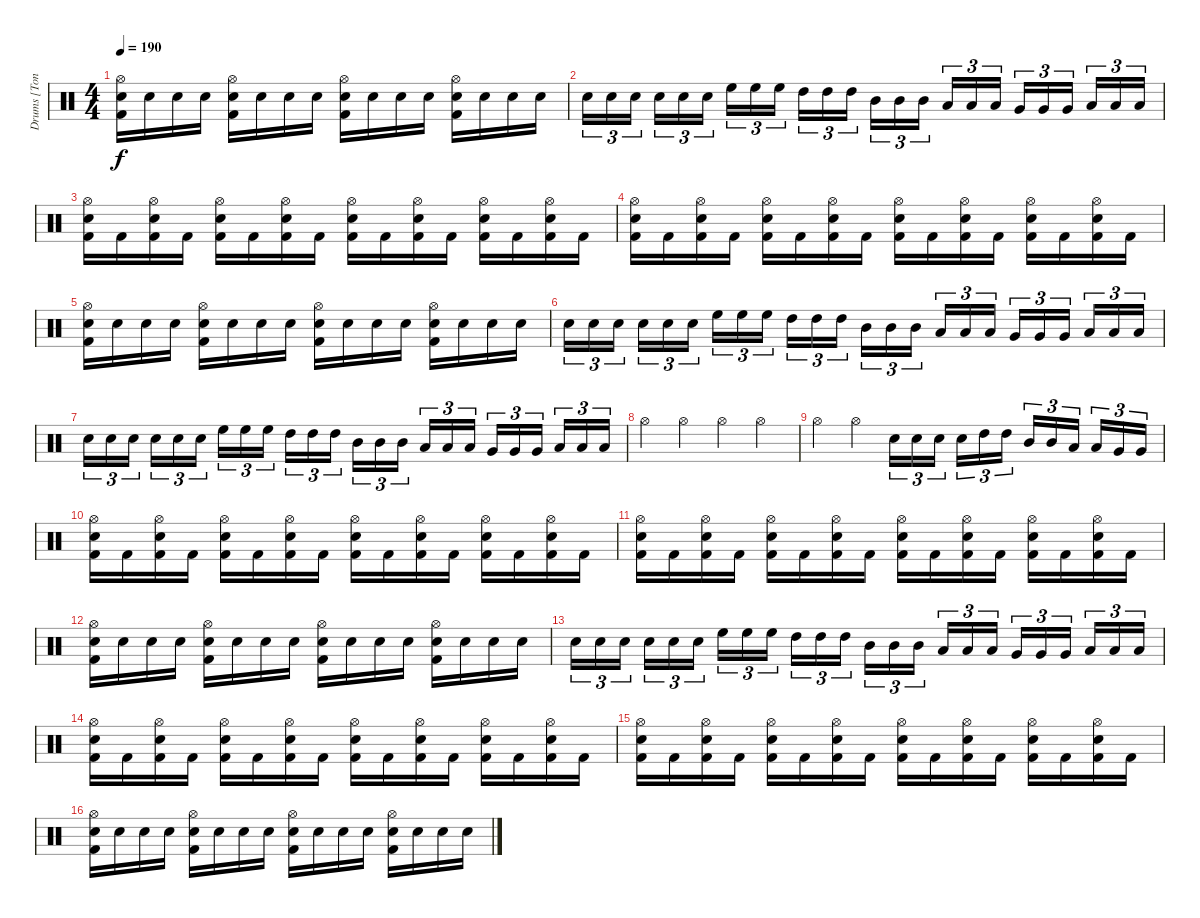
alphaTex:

\track ("Drums [Tony Laureano]" "Drums [Ton") {instrument percussion}
\staff {score}
\articulation defaults
\ts (4 4)
\tempo 190
\clef neutral
\ks c
("Hi-Hat (open)" "Electric Snare (hit)" "Kick (hit) 2").16{dy f} "Electric Snare (hit)".16 "Electric Snare (hit)".16 "Electric Snare (hit)".16 ("Hi-Hat (open)" "Electric Snare (hit)" "Kick (hit) 2").16 "Electric Snare (hit)".16 "Electric Snare (hit)".16 "Electric Snare (hit)".16 ("Hi-Hat (open)" "Electric Snare (hit)" "Kick (hit) 2").16 "Electric Snare (hit)".16 "Electric Snare (hit)".16 "Electric Snare (hit)".16 ("Hi-Hat (open)" "Electric Snare (hit)" "Kick (hit) 2").16 "Electric Snare (hit)".16 "Electric Snare (hit)".16 "Electric Snare (hit)".16 |
"Electric Snare (hit)".16{tu (3 2)} "Electric Snare (hit)".16{tu (3 2)} "Electric Snare (hit)".16{tu (3 2)} "Electric Snare (hit)".16{tu (3 2)} "Electric Snare (hit)".16{tu (3 2)} "Electric Snare (hit)".16{tu (3 2)} "High Floor Tom (hit)".16{tu (3 2)} "High Floor Tom (hit)".16{tu (3 2)} "High Floor Tom (hit)".16{tu (3 2)} "High Tom (hit)".16{tu (3 2)} "High Tom (hit)".16{tu (3 2)} "High Tom (hit)".16{tu (3 2)} "Mid Tom (hit)".16{tu (3 2)} "Mid Tom (hit)".16{tu (3 2)} "Mid Tom (hit)".16{tu (3 2)} "Low Tom (hit)".16{tu (3 2)} "Low Tom (hit)".16{tu (3 2)} "Low Tom (hit)".16{tu (3 2)} "Very Low Tom (hit)".16{tu (3 2)} "Very Low Tom (hit)".16{tu (3 2)} "Very Low Tom (hit)".16{tu (3 2)} "Low Floor Tom (hit)".16{tu (3 2)} "Low Floor Tom (hit)".16{tu (3 2)} "Low Floor Tom (hit)".16{tu (3 2)} |
("Hi-Hat (open)" "Electric Snare (hit)" "Kick (hit) 2").16 "Kick (hit) 2".16 ("Hi-Hat (open)" "Electric Snare (hit)" "Kick (hit) 2").16 "Kick (hit) 2".16 ("Hi-Hat (open)" "Electric Snare (hit)" "Kick (hit) 2").16 "Kick (hit) 2".16 ("Hi-Hat (open)" "Electric Snare (hit)" "Kick (hit) 2").16 "Kick (hit) 2".16 ("Hi-Hat (open)" "Electric Snare (hit)" "Kick (hit) 2").16 "Kick (hit) 2".16 ("Hi-Hat (open)" "Electric Snare (hit)" "Kick (hit) 2").16 "Kick (hit) 2".16 ("Hi-Hat (open)" "Electric Snare (hit)" "Kick (hit) 2").16 "Kick (hit) 2".16 ("Hi-Hat (open)" "Electric Snare (hit)" "Kick (hit) 2").16 "Kick (hit) 2".16 |
("Hi-Hat (open)" "Electric Snare (hit)" "Kick (hit) 2").16 "Kick (hit) 2".16 ("Hi-Hat (open)" "Electric Snare (hit)" "Kick (hit) 2").16 "Kick (hit) 2".16 ("Hi-Hat (open)" "Electric Snare (hit)" "Kick (hit) 2").16 "Kick (hit) 2".16 ("Hi-Hat (open)" "Electric Snare (hit)" "Kick (hit) 2").16 "Kick (hit) 2".16 ("Hi-Hat (open)" "Electric Snare (hit)" "Kick (hit) 2").16 "Kick (hit) 2".16 ("Hi-Hat (open)" "Electric Snare (hit)" "Kick (hit) 2").16 "Kick (hit) 2".16 ("Hi-Hat (open)" "Electric Snare (hit)" "Kick (hit) 2").16 "Kick (hit) 2".16 ("Hi-Hat (open)" "Electric Snare (hit)" "Kick (hit) 2").16 "Kick (hit) 2".16 |
("Hi-Hat (open)" "Electric Snare (hit)" "Kick (hit) 2").16 "Electric Snare (hit)".16 "Electric Snare (hit)".16 "Electric Snare (hit)".16 ("Hi-Hat (open)" "Electric Snare (hit)" "Kick (hit) 2").16 "Electric Snare (hit)".16 "Electric Snare (hit)".16 "Electric Snare (hit)".16 ("Hi-Hat (open)" "Electric Snare (hit)" "Kick (hit) 2").16 "Electric Snare (hit)".16 "Electric Snare (hit)".16 "Electric Snare (hit)".16 ("Hi-Hat (open)" "Electric Snare (hit)" "Kick (hit) 2").16 "Electric Snare (hit)".16 "Electric Snare (hit)".16 "Electric Snare (hit)".16 |
"Electric Snare (hit)".16{tu (3 2)} "Electric Snare (hit)".16{tu (3 2)} "Electric Snare (hit)".16{tu (3 2)} "Electric Snare (hit)".16{tu (3 2)} "Electric Snare (hit)".16{tu (3 2)} "Electric Snare (hit)".16{tu (3 2)} "High Floor Tom (hit)".16{tu (3 2)} "High Floor Tom (hit)".16{tu (3 2)} "High Floor Tom (hit)".16{tu (3 2)} "High Tom (hit)".16{tu (3 2)} "High Tom (hit)".16{tu (3 2)} "High Tom (hit)".16{tu (3 2)} "Mid Tom (hit)".16{tu (3 2)} "Mid Tom (hit)".16{tu (3 2)} "Mid Tom (hit)".16{tu (3 2)} "Low Tom (hit)".16{tu (3 2)} "Low Tom (hit)".16{tu (3 2)} "Low Tom (hit)".16{tu (3 2)} "Very Low Tom (hit)".16{tu (3 2)} "Very Low Tom (hit)".16{tu (3 2)} "Very Low Tom (hit)".16{tu (3 2)} "Low Floor Tom (hit)".16{tu (3 2)} "Low Floor Tom (hit)".16{tu (3 2)} "Low Floor Tom (hit)".16{tu (3 2)} |
"Electric Snare (hit)".16{tu (3 2)} "Electric Snare (hit)".16{tu (3 2)} "Electric Snare (hit)".16{tu (3 2)} "Electric Snare (hit)".16{tu (3 2)} "Electric Snare (hit)".16{tu (3 2)} "Electric Snare (hit)".16{tu (3 2)} "High Floor Tom (hit)".16{tu (3 2)} "High Floor Tom (hit)".16{tu (3 2)} "High Floor Tom (hit)".16{tu (3 2)} "High Tom (hit)".16{tu (3 2)} "High Tom (hit)".16{tu (3 2)} "High Tom (hit)".16{tu (3 2)} "Mid Tom (hit)".16{tu (3 2)} "Mid Tom (hit)".16{tu (3 2)} "Mid Tom (hit)".16{tu (3 2)} "Low Tom (hit)".16{tu (3 2)} "Low Tom (hit)".16{tu (3 2)} "Low Tom (hit)".16{tu (3 2)} "Very Low Tom (hit)".16{tu (3 2)} "Very Low Tom (hit)".16{tu (3 2)} "Very Low Tom (hit)".16{tu (3 2)} "Low Floor Tom (hit)".16{tu (3 2)} "Low Floor Tom (hit)".16{tu (3 2)} "Low Floor Tom (hit)".16{tu (3 2)} |
"Hi-Hat (open)".4 "Hi-Hat (open)".4 "Hi-Hat (open)".4 "Hi-Hat (open)".4 |
"Hi-Hat (open)".4 "Hi-Hat (open)".4 "Electric Snare (hit)".16{tu (3 2)} "Electric Snare (hit)".16{tu (3 2)} "Electric Snare (hit)".16{tu (3 2)} "Electric Snare (hit)".16{tu (3 2)} "High Tom (hit)".16{tu (3 2)} "High Tom (hit)".16{tu (3 2)} "Mid Tom (hit)".16{tu (3 2)} "Mid Tom (hit)".16{tu (3 2)} "Low Tom (hit)".16{tu (3 2)} "Low Tom (hit)".16{tu (3 2)} "Very Low Tom (hit)".16{tu (3 2)} "Very Low Tom (hit)".16{tu (3 2)} |
("Hi-Hat (open)" "Electric Snare (hit)" "Kick (hit) 2").16 "Kick (hit) 2".16 ("Hi-Hat (open)" "Electric Snare (hit)" "Kick (hit) 2").16 "Kick (hit) 2".16 ("Hi-Hat (open)" "Electric Snare (hit)" "Kick (hit) 2").16 "Kick (hit) 2".16 ("Hi-Hat (open)" "Electric Snare (hit)" "Kick (hit) 2").16 "Kick (hit) 2".16 ("Hi-Hat (open)" "Electric Snare (hit)" "Kick (hit) 2").16 "Kick (hit) 2".16 ("Hi-Hat (open)" "Electric Snare (hit)" "Kick (hit) 2").16 "Kick (hit) 2".16 ("Hi-Hat (open)" "Electric Snare (hit)" "Kick (hit) 2").16 "Kick (hit) 2".16 ("Hi-Hat (open)" "Electric Snare (hit)" "Kick (hit) 2").16 "Kick (hit) 2".16 |
("Hi-Hat (open)" "Electric Snare (hit)" "Kick (hit) 2").16 "Kick (hit) 2".16 ("Hi-Hat (open)" "Electric Snare (hit)" "Kick (hit) 2").16 "Kick (hit) 2".16 ("Hi-Hat (open)" "Electric Snare (hit)" "Kick (hit) 2").16 "Kick (hit) 2".16 ("Hi-Hat (open)" "Electric Snare (hit)" "Kick (hit) 2").16 "Kick (hit) 2".16 ("Hi-Hat (open)" "Electric Snare (hit)" "Kick (hit) 2").16 "Kick (hit) 2".16 ("Hi-Hat (open)" "Electric Snare (hit)" "Kick (hit) 2").16 "Kick (hit) 2".16 ("Hi-Hat (open)" "Electric Snare (hit)" "Kick (hit) 2").16 "Kick (hit) 2".16 ("Hi-Hat (open)" "Electric Snare (hit)" "Kick (hit) 2").16 "Kick (hit) 2".16 |
("Hi-Hat (open)" "Electric Snare (hit)" "Kick (hit) 2").16 "Electric Snare (hit)".16 "Electric Snare (hit)".16 "Electric Snare (hit)".16 ("Hi-Hat (open)" "Electric Snare (hit)" "Kick (hit) 2").16 "Electric Snare (hit)".16 "Electric Snare (hit)".16 "Electric Snare (hit)".16 ("Hi-Hat (open)" "Electric Snare (hit)" "Kick (hit) 2").16 "Electric Snare (hit)".16 "Electric Snare (hit)".16 "Electric Snare (hit)".16 ("Hi-Hat (open)" "Electric Snare (hit)" "Kick (hit) 2").16 "Electric Snare (hit)".16 "Electric Snare (hit)".16 "Electric Snare (hit)".16 |
"Electric Snare (hit)".16{tu (3 2)} "Electric Snare (hit)".16{tu (3 2)} "Electric Snare (hit)".16{tu (3 2)} "Electric Snare (hit)".16{tu (3 2)} "Electric Snare (hit)".16{tu (3 2)} "Electric Snare (hit)".16{tu (3 2)} "High Floor Tom (hit)".16{tu (3 2)} "High Floor Tom (hit)".16{tu (3 2)} "High Floor Tom (hit)".16{tu (3 2)} "High Tom (hit)".16{tu (3 2)} "High Tom (hit)".16{tu (3 2)} "High Tom (hit)".16{tu (3 2)} "Mid Tom (hit)".16{tu (3 2)} "Mid Tom (hit)".16{tu (3 2)} "Mid Tom (hit)".16{tu (3 2)} "Low Tom (hit)".16{tu (3 2)} "Low Tom (hit)".16{tu (3 2)} "Low Tom (hit)".16{tu (3 2)} "Very Low Tom (hit)".16{tu (3 2)} "Very Low Tom (hit)".16{tu (3 2)} "Very Low Tom (hit)".16{tu (3 2)} "Low Floor Tom (hit)".16{tu (3 2)} "Low Floor Tom (hit)".16{tu (3 2)} "Low Floor Tom (hit)".16{tu (3 2)} |
("Hi-Hat (open)" "Electric Snare (hit)" "Kick (hit) 2").16 "Kick (hit) 2".16 ("Hi-Hat (open)" "Electric Snare (hit)" "Kick (hit) 2").16 "Kick (hit) 2".16 ("Hi-Hat (open)" "Electric Snare (hit)" "Kick (hit) 2").16 "Kick (hit) 2".16 ("Hi-Hat (open)" "Electric Snare (hit)" "Kick (hit) 2").16 "Kick (hit) 2".16 ("Hi-Hat (open)" "Electric Snare (hit)" "Kick (hit) 2").16 "Kick (hit) 2".16 ("Hi-Hat (open)" "Electric Snare (hit)" "Kick (hit) 2").16 "Kick (hit) 2".16 ("Hi-Hat (open)" "Electric Snare (hit)" "Kick (hit) 2").16 "Kick (hit) 2".16 ("Hi-Hat (open)" "Electric Snare (hit)" "Kick (hit) 2").16 "Kick (hit) 2".16 |
("Hi-Hat (open)" "Electric Snare (hit)" "Kick (hit) 2").16 "Kick (hit) 2".16 ("Hi-Hat (open)" "Electric Snare (hit)" "Kick (hit) 2").16 "Kick (hit) 2".16 ("Hi-Hat (open)" "Electric Snare (hit)" "Kick (hit) 2").16 "Kick (hit) 2".16 ("Hi-Hat (open)" "Electric Snare (hit)" "Kick (hit) 2").16 "Kick (hit) 2".16 ("Hi-Hat (open)" "Electric Snare (hit)" "Kick (hit) 2").16 "Kick (hit) 2".16 ("Hi-Hat (open)" "Electric Snare (hit)" "Kick (hit) 2").16 "Kick (hit) 2".16 ("Hi-Hat (open)" "Electric Snare (hit)" "Kick (hit) 2").16 "Kick (hit) 2".16 ("Hi-Hat (open)" "Electric Snare (hit)" "Kick (hit) 2").16 "Kick (hit) 2".16 |
("Hi-Hat (open)" "Electric Snare (hit)" "Kick (hit) 2").16 "Electric Snare (hit)".16 "Electric Snare (hit)".16 "Electric Snare (hit)".16 ("Hi-Hat (open)" "Electric Snare (hit)" "Kick (hit) 2").16 "Electric Snare (hit)".16 "Electric Snare (hit)".16 "Electric Snare (hit)".16 ("Hi-Hat (open)" "Electric Snare (hit)" "Kick (hit) 2").16 "Electric Snare (hit)".16 "Electric Snare (hit)".16 "Electric Snare (hit)".16 ("Hi-Hat (open)" "Electric Snare (hit)" "Kick (hit) 2").16 "Electric Snare (hit)".16 "Electric Snare (hit)".16 "Electric Snare (hit)".16
